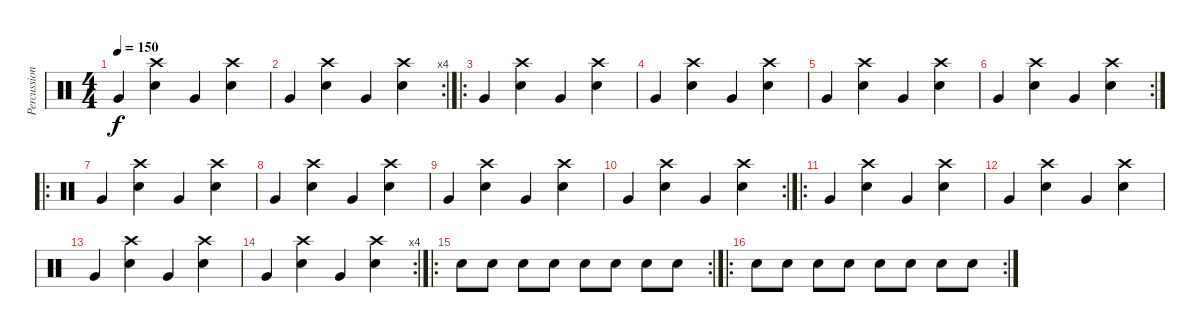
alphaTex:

\track ("Percussions" "Percussion") {instrument percussion}
\staff {score}
\articulation defaults
\ts (4 4)
\tempo 150
\clef neutral
\ks c "Very Low Tom (hit)".4{dy f}
("Crash high (hit)" "Snare (hit) 2").4 "Very Low Tom (hit)".4 ("Crash high (hit)" "Snare (hit) 2").4 |
\rc 4 "Very Low Tom (hit)".4
("Crash high (hit)" "Snare (hit) 2").4 "Very Low Tom (hit)".4 ("Crash high (hit)" "Snare (hit) 2").4 |
\ro "Very Low Tom (hit)".4
("Crash high (hit)" "Snare (hit) 2").4 "Very Low Tom (hit)".4 ("Crash high (hit)" "Snare (hit) 2").4 |
"Very Low Tom (hit)".4 ("Crash high (hit)" "Snare (hit) 2").4 "Very Low Tom (hit)".4 ("Crash high (hit)" "Snare (hit) 2").4 |
"Very Low Tom (hit)".4 ("Crash high (hit)" "Snare (hit) 2").4 "Very Low Tom (hit)".4 ("Crash high (hit)" "Snare (hit) 2").4 |
\rc 2 "Very Low Tom (hit)".4
("Crash high (hit)" "Snare (hit) 2").4 "Very Low Tom (hit)".4 ("Crash high (hit)" "Snare (hit) 2").4 |
\ro "Very Low Tom (hit)".4
("Crash high (hit)" "Snare (hit) 2").4 "Very Low Tom (hit)".4 ("Crash high (hit)" "Snare (hit) 2").4 |
"Very Low Tom (hit)".4 ("Crash high (hit)" "Snare (hit) 2").4 "Very Low Tom (hit)".4 ("Crash high (hit)" "Snare (hit) 2").4 |
"Very Low Tom (hit)".4 ("Crash high (hit)" "Snare (hit) 2").4 "Very Low Tom (hit)".4 ("Crash high (hit)" "Snare (hit) 2").4 |
\rc 2 "Very Low Tom (hit)".4
("Crash high (hit)" "Snare (hit) 2").4 "Very Low Tom (hit)".4 ("Crash high (hit)" "Snare (hit) 2").4 |
\ro "Very Low Tom (hit)".4
("Crash high (hit)" "Snare (hit) 2").4 "Very Low Tom (hit)".4 ("Crash high (hit)" "Snare (hit) 2").4 |
"Very Low Tom (hit)".4 ("Crash high (hit)" "Snare (hit) 2").4 "Very Low Tom (hit)".4 ("Crash high (hit)" "Snare (hit) 2").4 |
"Very Low Tom (hit)".4 ("Crash high (hit)" "Snare (hit) 2").4 "Very Low Tom (hit)".4 ("Crash high (hit)" "Snare (hit) 2").4 |
\rc 4 "Very Low Tom (hit)".4
("Crash high (hit)" "Snare (hit) 2").4 "Very Low Tom (hit)".4 ("Crash high (hit)" "Snare (hit) 2").4 |
\ro
\rc 2 "Snare (hit) 2".8 "Snare (hit) 2".8 "Snare (hit) 2".8 "Snare (hit) 2".8 "Snare (hit) 2".8 "Snare (hit) 2".8 "Snare (hit) 2".8 "Snare (hit) 2".8
|
\ro
\rc 2 "Snare (hit) 2".8 "Snare (hit) 2".8 "Snare (hit) 2".8 "Snare (hit) 2".8 "Snare (hit) 2".8 "Snare (hit) 2".8 "Snare (hit) 2".8 "Snare (hit) 2".8
